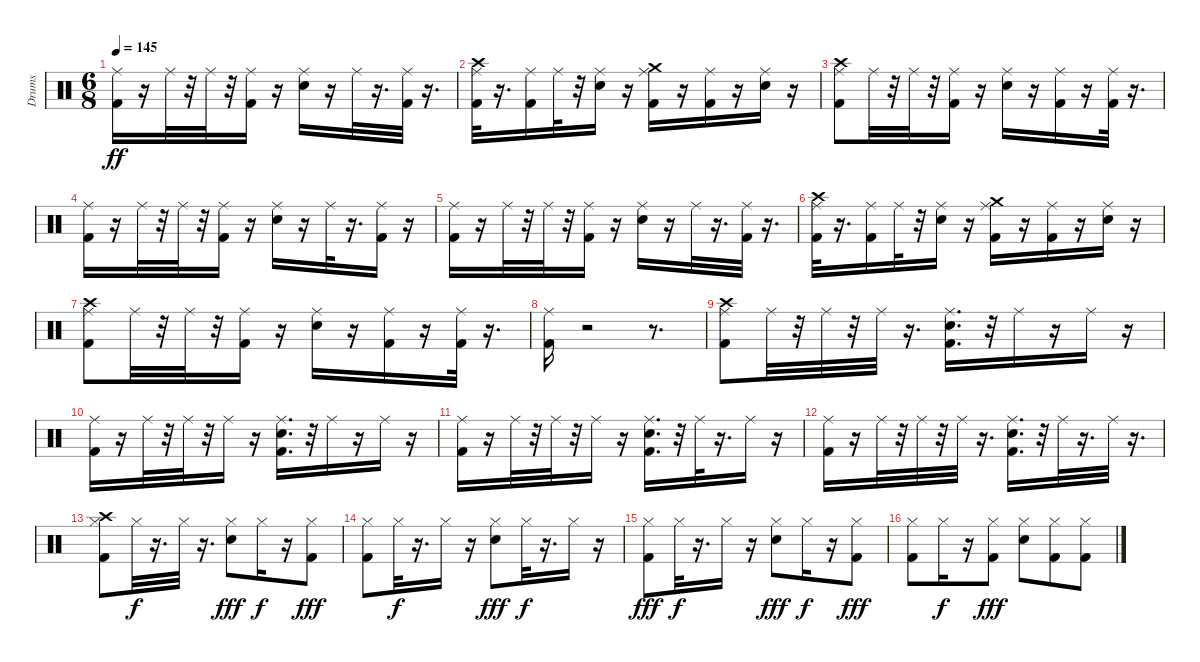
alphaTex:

\track ("Drums" "Drums") {instrument percussion}
\staff {score}
\articulation defaults
\ts (6 8)
\tempo 145
\clef neutral
\ks c
("Kick (hit) 2" "Ride (middle)").16{dy ff} r.16 "Ride (middle)".32 r.32 "Ride (middle)".32 r.32 ("Kick (hit) 2" "Ride (middle)").16 r.16 ("Snare (hit) 2" "Ride (middle)").16 r.16 "Ride (middle)".32 r.16{d} ("Kick (hit) 2" "Ride (middle)").32 r.16{d} |
("Kick (hit) 2" "Ride (middle)" "Crash high (hit)").32 r.16{d} ("Kick (hit) 2" "Ride (middle)").16 "Ride (middle)".32 r.32 ("Snare (hit) 2" "Ride (middle)").16 r.16 ("Kick (hit) 2" "Ride (middle)" "Crash medium (hit)").16 r.16 ("Kick (hit) 2" "Ride (middle)").16 r.16 ("Snare (hit) 2" "Ride (middle)").16 r.16 |
("Kick (hit) 2" "Ride (middle)" "Crash high (hit)").8 "Ride (middle)".32 r.32 "Ride (middle)".32 r.32 ("Kick (hit) 2" "Ride (middle)").16 r.16 ("Snare (hit) 2" "Ride (middle)").16 r.16 ("Kick (hit) 2" "Ride (middle)").16 r.16 ("Kick (hit) 2" "Ride (middle)").32 r.16{d} |
("Kick (hit) 2" "Ride (middle)").16 r.16 "Ride (middle)".32 r.32 "Ride (middle)".32 r.32 ("Kick (hit) 2" "Ride (middle)").16 r.16 ("Snare (hit) 2" "Ride (middle)").16 r.16 "Ride (middle)".32 r.16{d} ("Kick (hit) 2" "Ride (middle)").16 r.16 |
("Kick (hit) 2" "Ride (middle)").16 r.16 "Ride (middle)".32 r.32 "Ride (middle)".32 r.32 ("Kick (hit) 2" "Ride (middle)").16 r.16 ("Snare (hit) 2" "Ride (middle)").16 r.16 "Ride (middle)".32 r.16{d} ("Kick (hit) 2" "Ride (middle)").32 r.16{d} |
("Kick (hit) 2" "Ride (middle)" "Crash high (hit)").32 r.16{d} ("Kick (hit) 2" "Ride (middle)").16 "Ride (middle)".32 r.32 ("Snare (hit) 2" "Ride (middle)").16 r.16 ("Kick (hit) 2" "Ride (middle)" "Crash medium (hit)").16 r.16 ("Kick (hit) 2" "Ride (middle)").16 r.16 ("Snare (hit) 2" "Ride (middle)").16 r.16 |
("Kick (hit) 2" "Ride (middle)" "Crash high (hit)").8 "Ride (middle)".32 r.32 "Ride (middle)".32 r.32 ("Kick (hit) 2" "Ride (middle)").16 r.16 ("Snare (hit) 2" "Ride (middle)").16 r.16 ("Kick (hit) 2" "Ride (middle)").16 r.16 ("Kick (hit) 2" "Ride (middle)").32 r.16{d} |
("Kick (hit) 2" "Ride (middle)").16 r.2 r.8{d} |
("Kick (hit) 2" "Ride (middle)" "Crash high (hit)").8 "Ride (middle)".32 r.32 "Ride (middle)".32 r.32 "Ride (middle)".32 r.16{d} ("Kick (hit) 2" "Snare (hit) 2" "Ride (middle)").16{d} r.32 "Ride (middle)".16 r.16 "Ride (middle)".16 r.16 |
("Kick (hit) 2" "Ride (middle)").16 r.16 "Ride (middle)".32 r.32 "Ride (middle)".32 r.32 "Ride (middle)".16 r.16 ("Kick (hit) 2" "Snare (hit) 2" "Ride (middle)").16{d} r.32 "Ride (middle)".16 r.16 "Ride (middle)".16 r.16 |
("Kick (hit) 2" "Ride (middle)").16 r.16 "Ride (middle)".32 r.32 "Ride (middle)".32 r.32 "Ride (middle)".16 r.16 ("Kick (hit) 2" "Snare (hit) 2" "Ride (middle)").16{d} r.32 "Ride (middle)".32 r.16{d} "Ride (middle)".16 r.16 |
("Kick (hit) 2" "Ride (middle)").16 r.16 "Ride (middle)".32 r.32 "Ride (middle)".32 r.32 "Ride (middle)".32 r.16{d} ("Kick (hit) 2" "Snare (hit) 2" "Ride (middle)").16{d} r.32 "Ride (middle)".32 r.16{d} "Ride (middle)".32 r.16{d} |
("Kick (hit) 2" "Hi-Hat (closed)" "Crash high (hit)").8 "Hi-Hat (closed)".32{dy f} r.16{d} "Hi-Hat (closed)".32 r.16{d} ("Snare (hit) 2" "Hi-Hat (closed)").8{dy fff} "Hi-Hat (closed)".16{dy f} r.16 ("Kick (hit) 2" "Hi-Hat (closed)").8{dy fff} |
("Kick (hit) 2" "Hi-Hat (closed)").8 "Hi-Hat (closed)".32{dy f} r.16{d} "Hi-Hat (closed)".16 r.16 ("Snare (hit) 2" "Hi-Hat (closed)").8{dy fff} "Hi-Hat (closed)".32{dy f} r.16{d} "Hi-Hat (closed)".16 r.16 |
("Kick (hit) 2" "Hi-Hat (closed)").8{dy fff} "Hi-Hat (closed)".32{dy f} r.16{d} "Hi-Hat (closed)".16 r.16 ("Snare (hit) 2" "Hi-Hat (closed)").8{dy fff} "Hi-Hat (closed)".16{dy f} r.16 ("Kick (hit) 2" "Hi-Hat (closed)").8{dy fff} |
("Kick (hit) 2" "Hi-Hat (closed)").8 "Hi-Hat (closed)".16{dy f} r.16 ("Kick (hit) 2" "Hi-Hat (closed)").8{dy fff} ("Snare (hit) 2" "Hi-Hat (closed)").8 ("Kick (hit) 2" "Hi-Hat (closed)").8 ("Kick (hit) 2" "Hi-Hat (closed)").8
